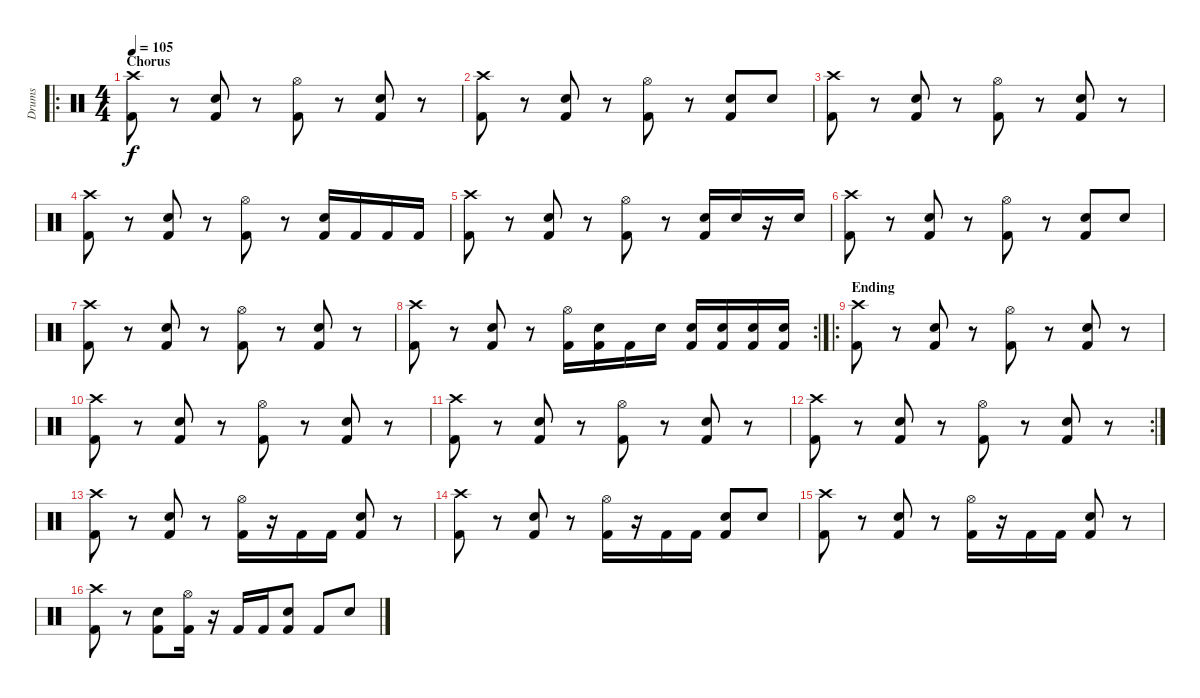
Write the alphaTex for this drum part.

\track ("Drums" "Drums") {instrument percussion}
\staff {score}
\articulation defaults
\ro
\ts (4 4)
\section ("" "Chorus")
\tempo 105
\clef neutral
\ks c
("Crash high (hit)" "Kick (hit) 2").8{dy f} r.8 ("Snare (hit) 2" "Kick (hit) 2").8 r.8 ("Hi-Hat (open)" "Kick (hit) 2").8 r.8 ("Snare (hit) 2" "Kick (hit) 2").8 r.8 |
("Crash high (hit)" "Kick (hit) 2").8 r.8 ("Snare (hit) 2" "Kick (hit) 2").8 r.8 ("Hi-Hat (open)" "Kick (hit) 2").8 r.8 ("Snare (hit) 2" "Kick (hit) 2").8 "Snare (hit) 2".8 |
("Crash high (hit)" "Kick (hit) 2").8 r.8 ("Snare (hit) 2" "Kick (hit) 2").8 r.8 ("Hi-Hat (open)" "Kick (hit) 2").8 r.8 ("Snare (hit) 2" "Kick (hit) 2").8 r.8 |
("Crash high (hit)" "Kick (hit) 2").8 r.8 ("Snare (hit) 2" "Kick (hit) 2").8 r.8 ("Hi-Hat (open)" "Kick (hit) 2").8 r.8 ("Snare (hit) 2" "Kick (hit) 2").16 "Kick (hit) 2".16 "Kick (hit) 2".16 "Kick (hit) 2".16 |
("Crash high (hit)" "Kick (hit) 2").8 r.8 ("Snare (hit) 2" "Kick (hit) 2").8 r.8 ("Hi-Hat (open)" "Kick (hit) 2").8 r.8 ("Snare (hit) 2" "Kick (hit) 2").16 "Snare (hit) 2".16 r.16 "Snare (hit) 2".16 |
("Crash high (hit)" "Kick (hit) 2").8 r.8 ("Snare (hit) 2" "Kick (hit) 2").8 r.8 ("Hi-Hat (open)" "Kick (hit) 2").8 r.8 ("Snare (hit) 2" "Kick (hit) 2").8 "Snare (hit) 2".8 |
("Crash high (hit)" "Kick (hit) 2").8 r.8 ("Snare (hit) 2" "Kick (hit) 2").8 r.8 ("Hi-Hat (open)" "Kick (hit) 2").8 r.8 ("Snare (hit) 2" "Kick (hit) 2").8 r.8 |
\rc 2
("Crash high (hit)" "Kick (hit) 2").8 r.8 ("Snare (hit) 2" "Kick (hit) 2").8 r.8 ("Hi-Hat (open)" "Kick (hit) 2").16 ("Snare (hit) 2" "Kick (hit) 2").16 "Kick (hit) 2".16 "Snare (hit) 2".16 ("Snare (hit) 2" "Kick (hit) 2").16 ("Snare (hit) 2" "Kick (hit) 2").16 ("Snare (hit) 2" "Kick (hit) 2").16 ("Snare (hit) 2" "Kick (hit) 2").16 |
\ro
\section ("" "Ending")
("Crash high (hit)" "Kick (hit) 2").8 r.8 ("Snare (hit) 2" "Kick (hit) 2").8 r.8 ("Hi-Hat (open)" "Kick (hit) 2").8 r.8 ("Snare (hit) 2" "Kick (hit) 2").8 r.8 |
("Crash high (hit)" "Kick (hit) 2").8 r.8 ("Snare (hit) 2" "Kick (hit) 2").8 r.8 ("Hi-Hat (open)" "Kick (hit) 2").8 r.8 ("Snare (hit) 2" "Kick (hit) 2").8 r.8 |
("Crash high (hit)" "Kick (hit) 2").8 r.8 ("Snare (hit) 2" "Kick (hit) 2").8 r.8 ("Hi-Hat (open)" "Kick (hit) 2").8 r.8 ("Snare (hit) 2" "Kick (hit) 2").8 r.8 |
\rc 2
("Crash high (hit)" "Kick (hit) 2").8 r.8 ("Snare (hit) 2" "Kick (hit) 2").8 r.8 ("Hi-Hat (open)" "Kick (hit) 2").8 r.8 ("Snare (hit) 2" "Kick (hit) 2").8 r.8 |
("Crash high (hit)" "Kick (hit) 2").8 r.8 ("Snare (hit) 2" "Kick (hit) 2").8 r.8 ("Hi-Hat (open)" "Kick (hit) 2").16 r.16 "Kick (hit) 2".16 "Kick (hit) 2".16 ("Snare (hit) 2" "Kick (hit) 2").8 r.8 |
("Crash high (hit)" "Kick (hit) 2").8 r.8 ("Snare (hit) 2" "Kick (hit) 2").8 r.8 ("Hi-Hat (open)" "Kick (hit) 2").16 r.16 "Kick (hit) 2".16 "Kick (hit) 2".16 ("Snare (hit) 2" "Kick (hit) 2").8 "Snare (hit) 2".8 |
("Crash high (hit)" "Kick (hit) 2").8 r.8 ("Snare (hit) 2" "Kick (hit) 2").8 r.8 ("Hi-Hat (open)" "Kick (hit) 2").16 r.16 "Kick (hit) 2".16 "Kick (hit) 2".16 ("Snare (hit) 2" "Kick (hit) 2").8 r.8 |
("Crash high (hit)" "Kick (hit) 2").8 r.8 ("Snare (hit) 2" "Kick (hit) 2").8 ("Hi-Hat (open)" "Kick (hit) 2").16 r.16 "Kick (hit) 2".16 "Kick (hit) 2".16 ("Snare (hit) 2" "Kick (hit) 2").8 "Kick (hit) 2".8 "Snare (hit) 2".8
